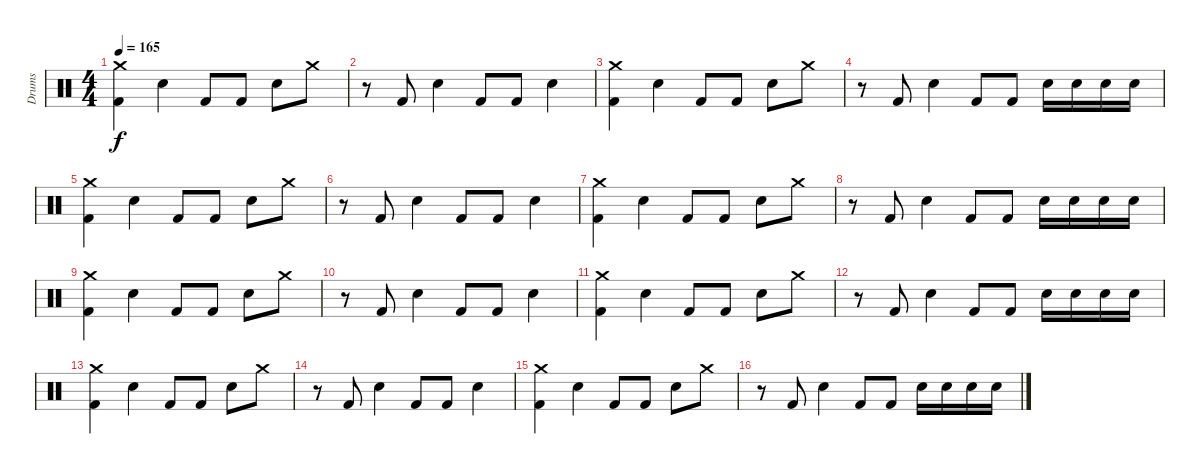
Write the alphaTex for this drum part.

\track ("Drums" "Drums") {instrument percussion}
\staff {score}
\articulation defaults
\ts (4 4)
\tempo 165
\clef neutral
\ks c
("Crash medium (hit)" "Kick (hit) 2").4{dy f} "Snare (hit) 2".4 "Kick (hit) 2".8 "Kick (hit) 2".8 "Snare (hit) 2".8 "Crash medium (hit)".8 |
r.8 "Kick (hit) 2".8 "Snare (hit) 2".4 "Kick (hit) 2".8 "Kick (hit) 2".8 "Snare (hit) 2".4 |
("Crash medium (hit)" "Kick (hit) 2").4 "Snare (hit) 2".4 "Kick (hit) 2".8 "Kick (hit) 2".8 "Snare (hit) 2".8 "Crash medium (hit)".8 |
r.8 "Kick (hit) 2".8 "Snare (hit) 2".4 "Kick (hit) 2".8 "Kick (hit) 2".8 "Snare (hit) 2".16 "Snare (hit) 2".16 "Snare (hit) 2".16 "Snare (hit) 2".16 |
("Crash medium (hit)" "Kick (hit) 2").4 "Snare (hit) 2".4 "Kick (hit) 2".8 "Kick (hit) 2".8 "Snare (hit) 2".8 "Crash medium (hit)".8 |
r.8 "Kick (hit) 2".8 "Snare (hit) 2".4 "Kick (hit) 2".8 "Kick (hit) 2".8 "Snare (hit) 2".4 |
("Crash medium (hit)" "Kick (hit) 2").4 "Snare (hit) 2".4 "Kick (hit) 2".8 "Kick (hit) 2".8 "Snare (hit) 2".8 "Crash medium (hit)".8 |
r.8 "Kick (hit) 2".8 "Snare (hit) 2".4 "Kick (hit) 2".8 "Kick (hit) 2".8 "Snare (hit) 2".16 "Snare (hit) 2".16 "Snare (hit) 2".16 "Snare (hit) 2".16 |
("Crash medium (hit)" "Kick (hit) 2").4 "Snare (hit) 2".4 "Kick (hit) 2".8 "Kick (hit) 2".8 "Snare (hit) 2".8 "Crash medium (hit)".8 |
r.8 "Kick (hit) 2".8 "Snare (hit) 2".4 "Kick (hit) 2".8 "Kick (hit) 2".8 "Snare (hit) 2".4 |
("Crash medium (hit)" "Kick (hit) 2").4 "Snare (hit) 2".4 "Kick (hit) 2".8 "Kick (hit) 2".8 "Snare (hit) 2".8 "Crash medium (hit)".8 |
r.8 "Kick (hit) 2".8 "Snare (hit) 2".4 "Kick (hit) 2".8 "Kick (hit) 2".8 "Snare (hit) 2".16 "Snare (hit) 2".16 "Snare (hit) 2".16 "Snare (hit) 2".16 |
("Crash medium (hit)" "Kick (hit) 2").4 "Snare (hit) 2".4 "Kick (hit) 2".8 "Kick (hit) 2".8 "Snare (hit) 2".8 "Crash medium (hit)".8 |
r.8 "Kick (hit) 2".8 "Snare (hit) 2".4 "Kick (hit) 2".8 "Kick (hit) 2".8 "Snare (hit) 2".4 |
("Crash medium (hit)" "Kick (hit) 2").4 "Snare (hit) 2".4 "Kick (hit) 2".8 "Kick (hit) 2".8 "Snare (hit) 2".8 "Crash medium (hit)".8 |
r.8 "Kick (hit) 2".8 "Snare (hit) 2".4 "Kick (hit) 2".8 "Kick (hit) 2".8 "Snare (hit) 2".16 "Snare (hit) 2".16 "Snare (hit) 2".16 "Snare (hit) 2".16
